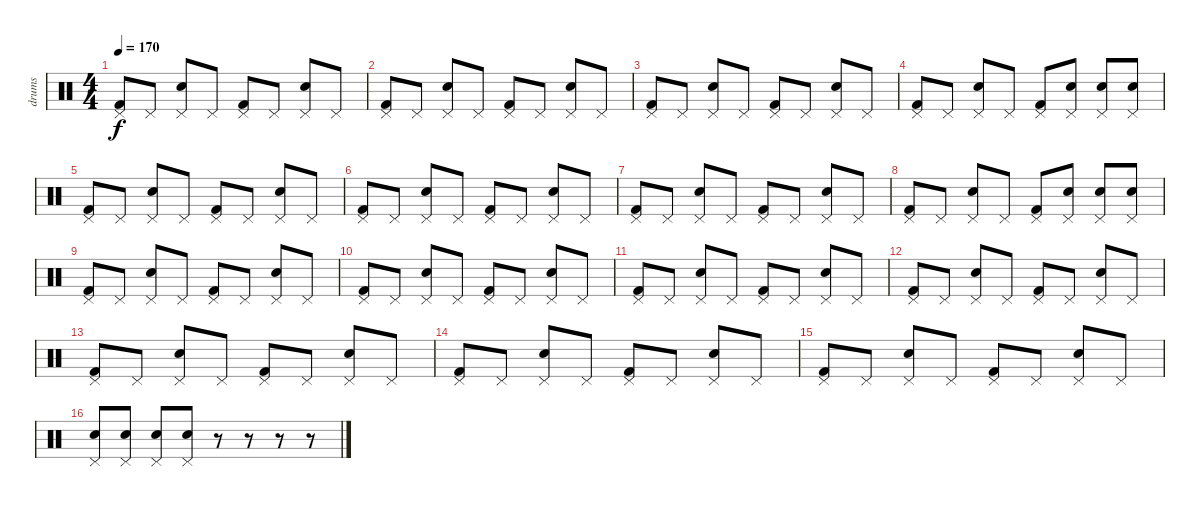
\track ("drums" "drums") {instrument percussion}
\staff {score}
\articulation defaults
\ts (4 4)
\tempo 170
\clef neutral
\ks c
("Kick (hit) 2" "Pedal Hi-Hat (hit)").8{dy f} "Pedal Hi-Hat (hit)".8 ("Electric Snare (hit)" "Pedal Hi-Hat (hit)").8 "Pedal Hi-Hat (hit)".8 ("Kick (hit) 2" "Pedal Hi-Hat (hit)").8 "Pedal Hi-Hat (hit)".8 ("Electric Snare (hit)" "Pedal Hi-Hat (hit)").8 "Pedal Hi-Hat (hit)".8 |
("Kick (hit) 2" "Pedal Hi-Hat (hit)").8 "Pedal Hi-Hat (hit)".8 ("Electric Snare (hit)" "Pedal Hi-Hat (hit)").8 "Pedal Hi-Hat (hit)".8 ("Kick (hit) 2" "Pedal Hi-Hat (hit)").8 "Pedal Hi-Hat (hit)".8 ("Electric Snare (hit)" "Pedal Hi-Hat (hit)").8 "Pedal Hi-Hat (hit)".8 |
("Kick (hit) 2" "Pedal Hi-Hat (hit)").8 "Pedal Hi-Hat (hit)".8 ("Electric Snare (hit)" "Pedal Hi-Hat (hit)").8 "Pedal Hi-Hat (hit)".8 ("Kick (hit) 2" "Pedal Hi-Hat (hit)").8 "Pedal Hi-Hat (hit)".8 ("Electric Snare (hit)" "Pedal Hi-Hat (hit)").8 "Pedal Hi-Hat (hit)".8 |
("Kick (hit) 2" "Pedal Hi-Hat (hit)").8 "Pedal Hi-Hat (hit)".8 ("Electric Snare (hit)" "Pedal Hi-Hat (hit)").8 "Pedal Hi-Hat (hit)".8 ("Kick (hit) 2" "Pedal Hi-Hat (hit)").8 ("Electric Snare (hit)" "Pedal Hi-Hat (hit)").8 ("Electric Snare (hit)" "Pedal Hi-Hat (hit)").8 ("Electric Snare (hit)" "Pedal Hi-Hat (hit)").8 |
("Kick (hit) 2" "Pedal Hi-Hat (hit)").8 "Pedal Hi-Hat (hit)".8 ("Electric Snare (hit)" "Pedal Hi-Hat (hit)").8 "Pedal Hi-Hat (hit)".8 ("Kick (hit) 2" "Pedal Hi-Hat (hit)").8 "Pedal Hi-Hat (hit)".8 ("Electric Snare (hit)" "Pedal Hi-Hat (hit)").8 "Pedal Hi-Hat (hit)".8 |
("Kick (hit) 2" "Pedal Hi-Hat (hit)").8 "Pedal Hi-Hat (hit)".8 ("Electric Snare (hit)" "Pedal Hi-Hat (hit)").8 "Pedal Hi-Hat (hit)".8 ("Kick (hit) 2" "Pedal Hi-Hat (hit)").8 "Pedal Hi-Hat (hit)".8 ("Electric Snare (hit)" "Pedal Hi-Hat (hit)").8 "Pedal Hi-Hat (hit)".8 |
("Kick (hit) 2" "Pedal Hi-Hat (hit)").8 "Pedal Hi-Hat (hit)".8 ("Electric Snare (hit)" "Pedal Hi-Hat (hit)").8 "Pedal Hi-Hat (hit)".8 ("Kick (hit) 2" "Pedal Hi-Hat (hit)").8 "Pedal Hi-Hat (hit)".8 ("Electric Snare (hit)" "Pedal Hi-Hat (hit)").8 "Pedal Hi-Hat (hit)".8 |
("Kick (hit) 2" "Pedal Hi-Hat (hit)").8 "Pedal Hi-Hat (hit)".8 ("Electric Snare (hit)" "Pedal Hi-Hat (hit)").8 "Pedal Hi-Hat (hit)".8 ("Kick (hit) 2" "Pedal Hi-Hat (hit)").8 ("Electric Snare (hit)" "Pedal Hi-Hat (hit)").8 ("Electric Snare (hit)" "Pedal Hi-Hat (hit)").8 ("Electric Snare (hit)" "Pedal Hi-Hat (hit)").8 |
("Kick (hit) 2" "Pedal Hi-Hat (hit)").8 "Pedal Hi-Hat (hit)".8 ("Electric Snare (hit)" "Pedal Hi-Hat (hit)").8 "Pedal Hi-Hat (hit)".8 ("Kick (hit) 2" "Pedal Hi-Hat (hit)").8 "Pedal Hi-Hat (hit)".8 ("Electric Snare (hit)" "Pedal Hi-Hat (hit)").8 "Pedal Hi-Hat (hit)".8 |
("Kick (hit) 2" "Pedal Hi-Hat (hit)").8 "Pedal Hi-Hat (hit)".8 ("Electric Snare (hit)" "Pedal Hi-Hat (hit)").8 "Pedal Hi-Hat (hit)".8 ("Kick (hit) 2" "Pedal Hi-Hat (hit)").8 "Pedal Hi-Hat (hit)".8 ("Electric Snare (hit)" "Pedal Hi-Hat (hit)").8 "Pedal Hi-Hat (hit)".8 |
("Kick (hit) 2" "Pedal Hi-Hat (hit)").8 "Pedal Hi-Hat (hit)".8 ("Electric Snare (hit)" "Pedal Hi-Hat (hit)").8 "Pedal Hi-Hat (hit)".8 ("Kick (hit) 2" "Pedal Hi-Hat (hit)").8 "Pedal Hi-Hat (hit)".8 ("Electric Snare (hit)" "Pedal Hi-Hat (hit)").8 "Pedal Hi-Hat (hit)".8 |
("Kick (hit) 2" "Pedal Hi-Hat (hit)").8 "Pedal Hi-Hat (hit)".8 ("Electric Snare (hit)" "Pedal Hi-Hat (hit)").8 "Pedal Hi-Hat (hit)".8 ("Kick (hit) 2" "Pedal Hi-Hat (hit)").8 "Pedal Hi-Hat (hit)".8 ("Electric Snare (hit)" "Pedal Hi-Hat (hit)").8 "Pedal Hi-Hat (hit)".8 |
("Kick (hit) 2" "Pedal Hi-Hat (hit)").8 "Pedal Hi-Hat (hit)".8 ("Electric Snare (hit)" "Pedal Hi-Hat (hit)").8 "Pedal Hi-Hat (hit)".8 ("Kick (hit) 2" "Pedal Hi-Hat (hit)").8 "Pedal Hi-Hat (hit)".8 ("Electric Snare (hit)" "Pedal Hi-Hat (hit)").8 "Pedal Hi-Hat (hit)".8 |
("Kick (hit) 2" "Pedal Hi-Hat (hit)").8 "Pedal Hi-Hat (hit)".8 ("Electric Snare (hit)" "Pedal Hi-Hat (hit)").8 "Pedal Hi-Hat (hit)".8 ("Kick (hit) 2" "Pedal Hi-Hat (hit)").8 "Pedal Hi-Hat (hit)".8 ("Electric Snare (hit)" "Pedal Hi-Hat (hit)").8 "Pedal Hi-Hat (hit)".8 |
("Kick (hit) 2" "Pedal Hi-Hat (hit)").8 "Pedal Hi-Hat (hit)".8 ("Electric Snare (hit)" "Pedal Hi-Hat (hit)").8 "Pedal Hi-Hat (hit)".8 ("Kick (hit) 2" "Pedal Hi-Hat (hit)").8 "Pedal Hi-Hat (hit)".8 ("Electric Snare (hit)" "Pedal Hi-Hat (hit)").8 "Pedal Hi-Hat (hit)".8 |
("Electric Snare (hit)" "Pedal Hi-Hat (hit)").8 ("Electric Snare (hit)" "Pedal Hi-Hat (hit)").8 ("Electric Snare (hit)" "Pedal Hi-Hat (hit)").8 ("Electric Snare (hit)" "Pedal Hi-Hat (hit)").8 r.8 r.8 r.8 r.8
